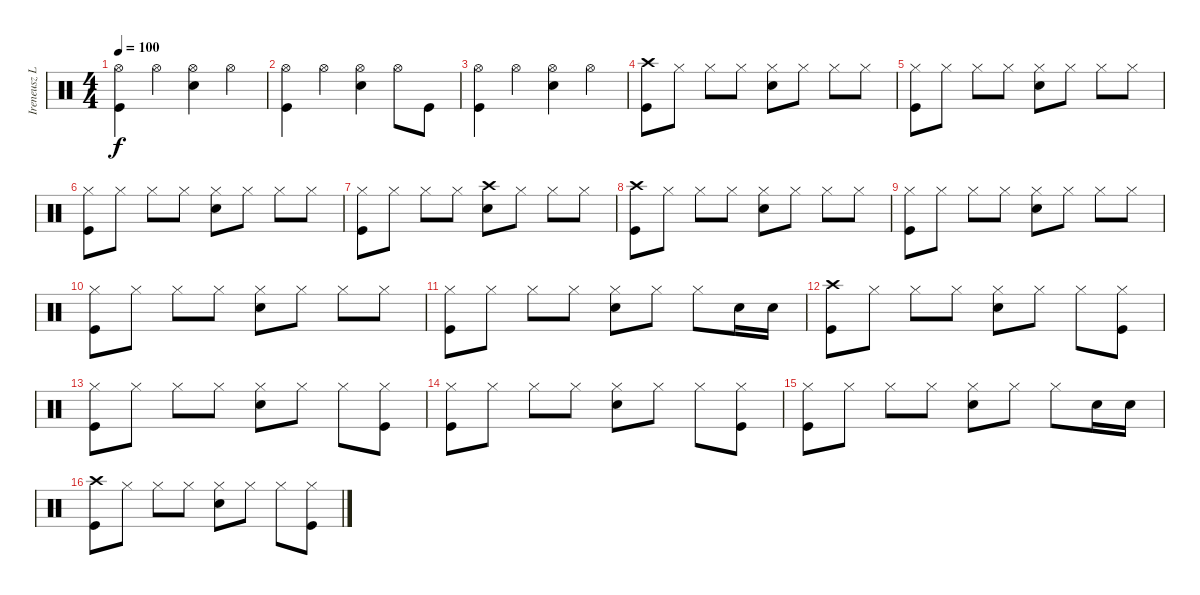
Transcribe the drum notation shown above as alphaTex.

\track ("Ireneusz Loth" "Ireneusz L") {instrument percussion}
\staff {score}
\articulation defaults
\ts (4 4)
\tempo 100
\clef neutral
\ks c
("Hi-Hat (open)" "Kick (hit)").4{dy f} "Hi-Hat (open)".4 ("Hi-Hat (open)" "Snare (hit) 2").4 "Hi-Hat (open)".4 |
("Hi-Hat (open)" "Kick (hit)").4 "Hi-Hat (open)".4 ("Hi-Hat (open)" "Snare (hit) 2").4 "Hi-Hat (open)".8 "Kick (hit)".8 |
("Hi-Hat (open)" "Kick (hit)").4 "Hi-Hat (open)".4 ("Hi-Hat (open)" "Snare (hit) 2").4 "Hi-Hat (open)".4 |
("Crash high (hit)" "Kick (hit)").8 "Hi-Hat (closed)".8 "Hi-Hat (closed)".8 "Hi-Hat (closed)".8 ("Hi-Hat (closed)" "Snare (hit) 2").8 "Hi-Hat (closed)".8 "Hi-Hat (closed)".8 "Hi-Hat (closed)".8 |
("Hi-Hat (closed)" "Kick (hit)").8 "Hi-Hat (closed)".8 "Hi-Hat (closed)".8 "Hi-Hat (closed)".8 ("Hi-Hat (closed)" "Snare (hit) 2").8 "Hi-Hat (closed)".8 "Hi-Hat (closed)".8 "Hi-Hat (closed)".8 |
("Hi-Hat (closed)" "Kick (hit)").8 "Hi-Hat (closed)".8 "Hi-Hat (closed)".8 "Hi-Hat (closed)".8 ("Hi-Hat (closed)" "Snare (hit) 2").8 "Hi-Hat (closed)".8 "Hi-Hat (closed)".8 "Hi-Hat (closed)".8 |
("Hi-Hat (closed)" "Kick (hit)").8 "Hi-Hat (closed)".8 "Hi-Hat (closed)".8 "Hi-Hat (closed)".8 ("Crash high (hit)" "Snare (hit) 2").8 "Hi-Hat (closed)".8 "Hi-Hat (closed)".8 "Hi-Hat (closed)".8 |
("Crash high (hit)" "Kick (hit)").8 "Hi-Hat (closed)".8 "Hi-Hat (closed)".8 "Hi-Hat (closed)".8 ("Hi-Hat (closed)" "Snare (hit) 2").8 "Hi-Hat (closed)".8 "Hi-Hat (closed)".8 "Hi-Hat (closed)".8 |
("Hi-Hat (closed)" "Kick (hit)").8 "Hi-Hat (closed)".8 "Hi-Hat (closed)".8 "Hi-Hat (closed)".8 ("Hi-Hat (closed)" "Snare (hit) 2").8 "Hi-Hat (closed)".8 "Hi-Hat (closed)".8 "Hi-Hat (closed)".8 |
("Hi-Hat (closed)" "Kick (hit)").8 "Hi-Hat (closed)".8 "Hi-Hat (closed)".8 "Hi-Hat (closed)".8 ("Hi-Hat (closed)" "Snare (hit) 2").8 "Hi-Hat (closed)".8 "Hi-Hat (closed)".8 "Hi-Hat (closed)".8 |
("Hi-Hat (closed)" "Kick (hit)").8 "Hi-Hat (closed)".8 "Hi-Hat (closed)".8 "Hi-Hat (closed)".8 ("Hi-Hat (closed)" "Snare (hit) 2").8 "Hi-Hat (closed)".8 "Hi-Hat (closed)".8 "Snare (hit) 2".16 "Snare (hit) 2".16 |
("Crash high (hit)" "Kick (hit)").8 "Hi-Hat (closed)".8 "Hi-Hat (closed)".8 "Hi-Hat (closed)".8 ("Hi-Hat (closed)" "Snare (hit) 2").8 "Hi-Hat (closed)".8 "Hi-Hat (closed)".8 ("Hi-Hat (closed)" "Kick (hit)").8 |
("Hi-Hat (closed)" "Kick (hit)").8 "Hi-Hat (closed)".8 "Hi-Hat (closed)".8 "Hi-Hat (closed)".8 ("Hi-Hat (closed)" "Snare (hit) 2").8 "Hi-Hat (closed)".8 "Hi-Hat (closed)".8 ("Hi-Hat (closed)" "Kick (hit)").8 |
("Hi-Hat (closed)" "Kick (hit)").8 "Hi-Hat (closed)".8 "Hi-Hat (closed)".8 "Hi-Hat (closed)".8 ("Hi-Hat (closed)" "Snare (hit) 2").8 "Hi-Hat (closed)".8 "Hi-Hat (closed)".8 ("Hi-Hat (closed)" "Kick (hit)").8 |
("Hi-Hat (closed)" "Kick (hit)").8 "Hi-Hat (closed)".8 "Hi-Hat (closed)".8 "Hi-Hat (closed)".8 ("Hi-Hat (closed)" "Snare (hit) 2").8 "Hi-Hat (closed)".8 "Hi-Hat (closed)".8 "Snare (hit) 2".16 "Snare (hit) 2".16 |
("Crash high (hit)" "Kick (hit)").8 "Hi-Hat (closed)".8 "Hi-Hat (closed)".8 "Hi-Hat (closed)".8 ("Hi-Hat (closed)" "Snare (hit) 2").8 "Hi-Hat (closed)".8 "Hi-Hat (closed)".8 ("Hi-Hat (closed)" "Kick (hit)").8
